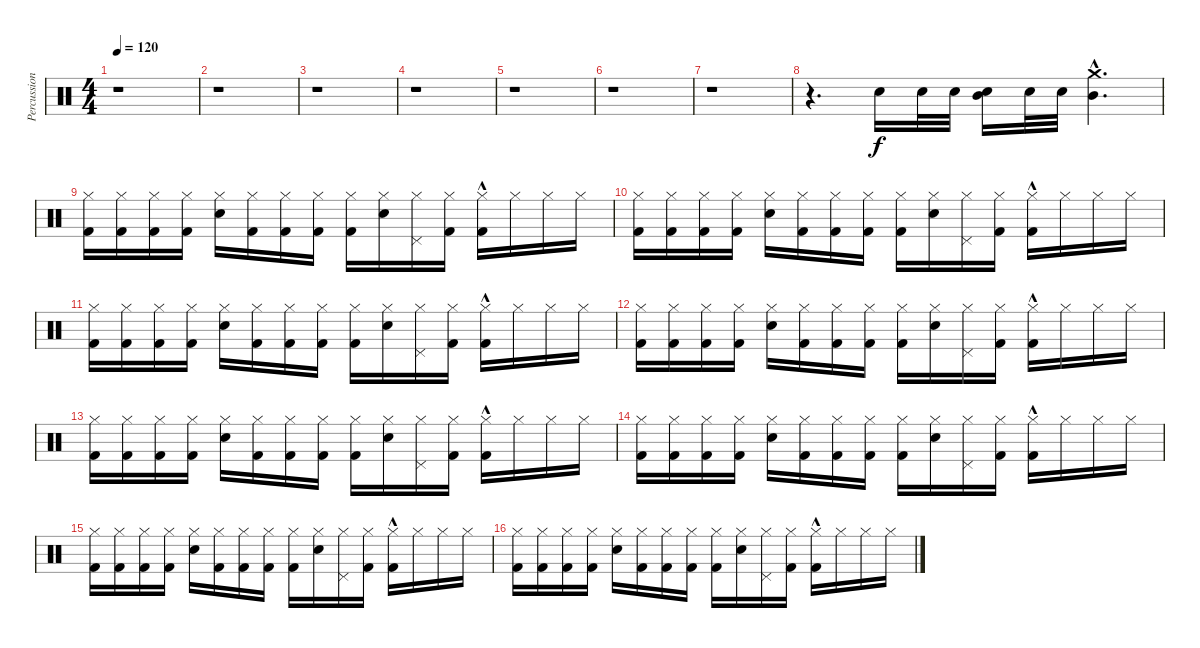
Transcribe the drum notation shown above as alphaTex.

\track ("Percussion" "Percussion") {instrument percussion}
\staff {score}
\articulation defaults
\ts (4 4)
\tempo 120
\clef neutral
\ks c
r.1{dy f} |
r.1 |
r.1 |
r.1 |
r.1 |
r.1 |
r.1 |
r.4{d} "Snare (hit) 2".16 "Snare (hit) 2".32 "Snare (hit) 2".32 ("Snare (hit) 2" "Mid Tom (hit)").16 "Snare (hit) 2".32 "Snare (hit) 2".32 ("Mid Tom (hit)"{hac} "Crash medium (hit)"{hac}).4{d} |
("Hi-Hat (closed)" "Kick (hit) 2").16 ("Hi-Hat (closed)" "Kick (hit) 2").16 ("Hi-Hat (closed)" "Kick (hit) 2").16 ("Hi-Hat (closed)" "Kick (hit) 2").16 ("Hi-Hat (closed)" "Snare (hit) 2").16 ("Hi-Hat (closed)" "Kick (hit) 2").16 ("Hi-Hat (closed)" "Kick (hit) 2").16 ("Hi-Hat (closed)" "Kick (hit) 2").16 ("Hi-Hat (closed)" "Kick (hit) 2").16 ("Hi-Hat (closed)" "Snare (hit) 2").16 ("Hi-Hat (closed)" "Pedal Hi-Hat (hit)").16 ("Hi-Hat (closed)" "Kick (hit) 2").16 ("Hi-Hat (closed)" "Kick (hit) 2"{hac}).16 "Hi-Hat (closed)".16 "Hi-Hat (closed)".16 "Hi-Hat (closed)".16 |
("Hi-Hat (closed)" "Kick (hit) 2").16 ("Hi-Hat (closed)" "Kick (hit) 2").16 ("Hi-Hat (closed)" "Kick (hit) 2").16 ("Hi-Hat (closed)" "Kick (hit) 2").16 ("Hi-Hat (closed)" "Snare (hit) 2").16 ("Hi-Hat (closed)" "Kick (hit) 2").16 ("Hi-Hat (closed)" "Kick (hit) 2").16 ("Hi-Hat (closed)" "Kick (hit) 2").16 ("Hi-Hat (closed)" "Kick (hit) 2").16 ("Hi-Hat (closed)" "Snare (hit) 2").16 ("Hi-Hat (closed)" "Pedal Hi-Hat (hit)").16 ("Hi-Hat (closed)" "Kick (hit) 2").16 ("Hi-Hat (closed)" "Kick (hit) 2"{hac}).16 "Hi-Hat (closed)".16 "Hi-Hat (closed)".16 "Hi-Hat (closed)".16 |
("Hi-Hat (closed)" "Kick (hit) 2").16 ("Hi-Hat (closed)" "Kick (hit) 2").16 ("Hi-Hat (closed)" "Kick (hit) 2").16 ("Hi-Hat (closed)" "Kick (hit) 2").16 ("Hi-Hat (closed)" "Snare (hit) 2").16 ("Hi-Hat (closed)" "Kick (hit) 2").16 ("Hi-Hat (closed)" "Kick (hit) 2").16 ("Hi-Hat (closed)" "Kick (hit) 2").16 ("Hi-Hat (closed)" "Kick (hit) 2").16 ("Hi-Hat (closed)" "Snare (hit) 2").16 ("Hi-Hat (closed)" "Pedal Hi-Hat (hit)").16 ("Hi-Hat (closed)" "Kick (hit) 2").16 ("Hi-Hat (closed)" "Kick (hit) 2"{hac}).16 "Hi-Hat (closed)".16 "Hi-Hat (closed)".16 "Hi-Hat (closed)".16 |
("Hi-Hat (closed)" "Kick (hit) 2").16 ("Hi-Hat (closed)" "Kick (hit) 2").16 ("Hi-Hat (closed)" "Kick (hit) 2").16 ("Hi-Hat (closed)" "Kick (hit) 2").16 ("Hi-Hat (closed)" "Snare (hit) 2").16 ("Hi-Hat (closed)" "Kick (hit) 2").16 ("Hi-Hat (closed)" "Kick (hit) 2").16 ("Hi-Hat (closed)" "Kick (hit) 2").16 ("Hi-Hat (closed)" "Kick (hit) 2").16 ("Hi-Hat (closed)" "Snare (hit) 2").16 ("Hi-Hat (closed)" "Pedal Hi-Hat (hit)").16 ("Hi-Hat (closed)" "Kick (hit) 2").16 ("Hi-Hat (closed)" "Kick (hit) 2"{hac}).16 "Hi-Hat (closed)".16 "Hi-Hat (closed)".16 "Hi-Hat (closed)".16 |
("Hi-Hat (closed)" "Kick (hit) 2").16 ("Hi-Hat (closed)" "Kick (hit) 2").16 ("Hi-Hat (closed)" "Kick (hit) 2").16 ("Hi-Hat (closed)" "Kick (hit) 2").16 ("Hi-Hat (closed)" "Snare (hit) 2").16 ("Hi-Hat (closed)" "Kick (hit) 2").16 ("Hi-Hat (closed)" "Kick (hit) 2").16 ("Hi-Hat (closed)" "Kick (hit) 2").16 ("Hi-Hat (closed)" "Kick (hit) 2").16 ("Hi-Hat (closed)" "Snare (hit) 2").16 ("Hi-Hat (closed)" "Pedal Hi-Hat (hit)").16 ("Hi-Hat (closed)" "Kick (hit) 2").16 ("Hi-Hat (closed)" "Kick (hit) 2"{hac}).16 "Hi-Hat (closed)".16 "Hi-Hat (closed)".16 "Hi-Hat (closed)".16 |
("Hi-Hat (closed)" "Kick (hit) 2").16 ("Hi-Hat (closed)" "Kick (hit) 2").16 ("Hi-Hat (closed)" "Kick (hit) 2").16 ("Hi-Hat (closed)" "Kick (hit) 2").16 ("Hi-Hat (closed)" "Snare (hit) 2").16 ("Hi-Hat (closed)" "Kick (hit) 2").16 ("Hi-Hat (closed)" "Kick (hit) 2").16 ("Hi-Hat (closed)" "Kick (hit) 2").16 ("Hi-Hat (closed)" "Kick (hit) 2").16 ("Hi-Hat (closed)" "Snare (hit) 2").16 ("Hi-Hat (closed)" "Pedal Hi-Hat (hit)").16 ("Hi-Hat (closed)" "Kick (hit) 2").16 ("Hi-Hat (closed)" "Kick (hit) 2"{hac}).16 "Hi-Hat (closed)".16 "Hi-Hat (closed)".16 "Hi-Hat (closed)".16 |
("Hi-Hat (closed)" "Kick (hit) 2").16 ("Hi-Hat (closed)" "Kick (hit) 2").16 ("Hi-Hat (closed)" "Kick (hit) 2").16 ("Hi-Hat (closed)" "Kick (hit) 2").16 ("Hi-Hat (closed)" "Snare (hit) 2").16 ("Hi-Hat (closed)" "Kick (hit) 2").16 ("Hi-Hat (closed)" "Kick (hit) 2").16 ("Hi-Hat (closed)" "Kick (hit) 2").16 ("Hi-Hat (closed)" "Kick (hit) 2").16 ("Hi-Hat (closed)" "Snare (hit) 2").16 ("Hi-Hat (closed)" "Pedal Hi-Hat (hit)").16 ("Hi-Hat (closed)" "Kick (hit) 2").16 ("Hi-Hat (closed)" "Kick (hit) 2"{hac}).16 "Hi-Hat (closed)".16 "Hi-Hat (closed)".16 "Hi-Hat (closed)".16 |
("Hi-Hat (closed)" "Kick (hit) 2").16 ("Hi-Hat (closed)" "Kick (hit) 2").16 ("Hi-Hat (closed)" "Kick (hit) 2").16 ("Hi-Hat (closed)" "Kick (hit) 2").16 ("Hi-Hat (closed)" "Snare (hit) 2").16 ("Hi-Hat (closed)" "Kick (hit) 2").16 ("Hi-Hat (closed)" "Kick (hit) 2").16 ("Hi-Hat (closed)" "Kick (hit) 2").16 ("Hi-Hat (closed)" "Kick (hit) 2").16 ("Hi-Hat (closed)" "Snare (hit) 2").16 ("Hi-Hat (closed)" "Pedal Hi-Hat (hit)").16 ("Hi-Hat (closed)" "Kick (hit) 2").16 ("Hi-Hat (closed)" "Kick (hit) 2"{hac}).16 "Hi-Hat (closed)".16 "Hi-Hat (closed)".16 "Hi-Hat (closed)".16
